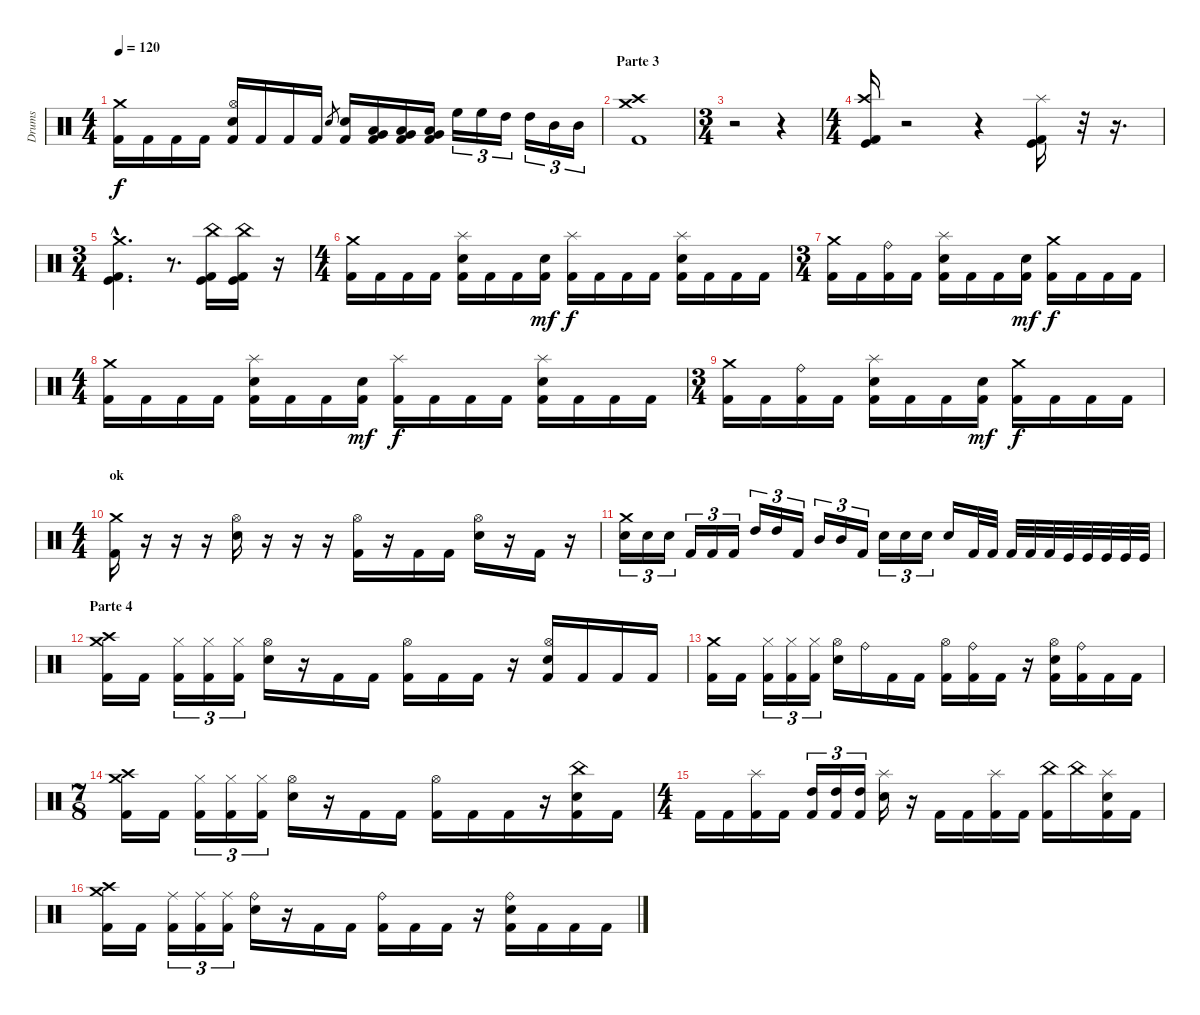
\track ("Drums" "Drums") {instrument percussion}
\staff {score}
\articulation defaults
\ts (4 4)
\tempo 120
\clef neutral
\ks c
("Crash medium (hit)" "Kick (hit) 2").16{dy f} "Kick (hit) 2".16 "Kick (hit) 2".16 "Kick (hit) 2".16 ("Hi-Hat (open)" "Electric Snare (hit)" "Kick (hit) 2").16 "Kick (hit) 2".16 "Kick (hit) 2".16 "Kick (hit) 2".16 "Electric Snare (hit)".8{gr} ("Electric Snare (hit)" "Kick (hit) 2").16 ("Low Floor Tom (hit)" "Very Low Tom (hit)" "Kick (hit) 2").16 ("Low Floor Tom (hit)" "Very Low Tom (hit)" "Kick (hit) 2").16 ("Low Floor Tom (hit)" "Very Low Tom (hit)" "Kick (hit) 2").16 "High Floor Tom (hit)".16{tu (3 2)} "High Floor Tom (hit)".16{tu (3 2)} "High Tom (hit)".16{tu (3 2)} "High Tom (hit)".16{tu (3 2)} "Mid Tom (hit)".16{tu (3 2)} "Mid Tom (hit)".16{tu (3 2)} |
\section ("" "Parte 3")
("Crash high (hit)" "Crash medium (hit)" "Kick (hit) 2").1 |
\ts (3 4)
r.2 r.4 |
\ts (4 4)
("Crash high (hit)" "Kick (hit) 2" "Kick (hit)").16{volume 0} r.2 r.4 ("Splash (hit)" "Kick (hit) 2" "Kick (hit)").16{volume 13} r.32 r.16{d} |
\ts (3 4)
("Crash medium (hit)"{hac} "Kick (hit) 2"{hac} "Kick (hit)"{hac}).4{d volume 0} r.8{d} ("China (hit)" "Kick (hit) 2" "Kick (hit)").16{volume 13} ("China (hit)" "Kick (hit) 2" "Kick (hit)").16 r.16 |
\ts (4 4)
("Crash medium (hit)" "Kick (hit) 2").16 "Kick (hit) 2".16 "Kick (hit) 2".16 "Kick (hit) 2".16 ("Splash (hit)" "Electric Snare (hit)" "Kick (hit) 2").16 "Kick (hit) 2".16 "Kick (hit) 2".16 ("Electric Snare (hit)" "Kick (hit) 2").16{dy mf} ("Splash (hit)" "Kick (hit) 2").16{dy f} "Kick (hit) 2".16 "Kick (hit) 2".16 "Kick (hit) 2".16 ("Splash (hit)" "Electric Snare (hit)" "Kick (hit) 2").16 "Kick (hit) 2".16 "Kick (hit) 2".16 "Kick (hit) 2".16 |
\ts (3 4)
("Crash medium (hit)" "Kick (hit) 2").16 "Kick (hit) 2".16 ("Ride (bell)" "Kick (hit) 2").16 "Kick (hit) 2".16 ("Splash (hit)" "Electric Snare (hit)" "Kick (hit) 2").16 "Kick (hit) 2".16 "Kick (hit) 2".16 ("Electric Snare (hit)" "Kick (hit) 2").16{dy mf} ("Crash medium (hit)" "Kick (hit) 2").16{dy f} "Kick (hit) 2".16 "Kick (hit) 2".16 "Kick (hit) 2".16 |
\ts (4 4)
("Crash medium (hit)" "Kick (hit) 2").16 "Kick (hit) 2".16 "Kick (hit) 2".16 "Kick (hit) 2".16 ("Splash (hit)" "Electric Snare (hit)" "Kick (hit) 2").16 "Kick (hit) 2".16 "Kick (hit) 2".16 ("Electric Snare (hit)" "Kick (hit) 2").16{dy mf} ("Splash (hit)" "Kick (hit) 2").16{dy f} "Kick (hit) 2".16 "Kick (hit) 2".16 "Kick (hit) 2".16 ("Splash (hit)" "Electric Snare (hit)" "Kick (hit) 2").16 "Kick (hit) 2".16 "Kick (hit) 2".16 "Kick (hit) 2".16 |
\ts (3 4)
("Crash medium (hit)" "Kick (hit) 2").16 "Kick (hit) 2".16 ("Ride (bell)" "Kick (hit) 2").16 "Kick (hit) 2".16 ("Splash (hit)" "Electric Snare (hit)" "Kick (hit) 2").16 "Kick (hit) 2".16 "Kick (hit) 2".16 ("Electric Snare (hit)" "Kick (hit) 2").16{dy mf} ("Crash medium (hit)" "Kick (hit) 2").16{dy f} "Kick (hit) 2".16 "Kick (hit) 2".16 "Kick (hit) 2".16 |
\ts (4 4)
\section ("" "ok")
("Crash medium (hit)" "Kick (hit) 2").16 r.16 r.16 r.16 ("Hi-Hat (open)" "Electric Snare (hit)").16 r.16 r.16 r.16 ("Hi-Hat (open)" "Kick (hit) 2").16 r.16 "Kick (hit) 2".16 "Kick (hit) 2".16 ("Hi-Hat (open)" "Electric Snare (hit)").16 r.16 "Kick (hit) 2".16 r.16 |
("Crash medium (hit)" "Electric Snare (hit)").16{tu (3 2)} "Electric Snare (hit)".16{tu (3 2)} "Electric Snare (hit)".16{tu (3 2)} "Kick (hit) 2".16{tu (3 2)} "Kick (hit) 2".16{tu (3 2)} "Kick (hit) 2".16{tu (3 2)} "High Tom (hit)".16{tu (3 2)} "High Tom (hit)".16{tu (3 2)} "Kick (hit) 2".16{tu (3 2)} "Mid Tom (hit)".16{tu (3 2)} "Mid Tom (hit)".16{tu (3 2)} "Kick (hit) 2".16{tu (3 2)} "Electric Snare (hit)".16{tu (3 2)} "Electric Snare (hit)".16{tu (3 2)} "Electric Snare (hit)".16{tu (3 2)} "Electric Snare (hit)".16 "Kick (hit) 2".32 "Kick (hit) 2".32 "Kick (hit) 2".32 "Kick (hit) 2".32 "Kick (hit) 2".32 "Kick (hit)".32 "Kick (hit)".32 "Kick (hit)".32 "Kick (hit)".32 "Kick (hit)".32 |
\section ("" "Parte 4 ")
("Crash medium (hit)" "Crash high (hit)" "Kick (hit) 2").16 "Kick (hit) 2".16 ("Hi-Hat (closed)" "Kick (hit) 2").16{tu (3 2)} ("Hi-Hat (closed)" "Kick (hit) 2").16{tu (3 2)} ("Hi-Hat (closed)" "Kick (hit) 2").16{tu (3 2)} ("Hi-Hat (open)" "Electric Snare (hit)").16 r.16 "Kick (hit) 2".16 "Kick (hit) 2".16 ("Hi-Hat (open)" "Kick (hit) 2").16 "Kick (hit) 2".16 "Kick (hit) 2".16 r.16 ("Hi-Hat (open)" "Electric Snare (hit)" "Kick (hit) 2").16 "Kick (hit) 2".16 "Kick (hit) 2".16 "Kick (hit) 2".16 |
("Crash medium (hit)" "Kick (hit) 2").16 "Kick (hit) 2".16 ("Hi-Hat (closed)" "Kick (hit) 2").16{tu (3 2)} ("Hi-Hat (closed)" "Kick (hit) 2").16{tu (3 2)} ("Hi-Hat (closed)" "Kick (hit) 2").16{tu (3 2)} ("Hi-Hat (open)" "Electric Snare (hit)").16 "Ride (bell)".16 "Kick (hit) 2".16 "Kick (hit) 2".16 ("Hi-Hat (open)" "Kick (hit) 2").16 ("Ride (bell)" "Kick (hit) 2").16 "Kick (hit) 2".16 r.16 ("Hi-Hat (open)" "Electric Snare (hit)" "Kick (hit) 2").16 ("Ride (bell)" "Kick (hit) 2").16 "Kick (hit) 2".16 "Kick (hit) 2".16 |
\ts (7 8)
("Crash high (hit)" "Crash medium (hit)" "Kick (hit) 2").16 "Kick (hit) 2".16 ("Hi-Hat (closed)" "Kick (hit) 2").16{tu (3 2)} ("Hi-Hat (closed)" "Kick (hit) 2").16{tu (3 2)} ("Hi-Hat (closed)" "Kick (hit) 2").16{tu (3 2)} ("Hi-Hat (open)" "Electric Snare (hit)").16 r.16 "Kick (hit) 2".16 "Kick (hit) 2".16 ("Hi-Hat (open)" "Kick (hit) 2").16 "Kick (hit) 2".16 "Kick (hit) 2".16 r.16 ("China (hit)" "Electric Snare (hit)" "Kick (hit) 2").16 "Kick (hit) 2".16 |
\ts (4 4)
"Kick (hit) 2".16 "Kick (hit) 2".16 ("Splash (hit)" "Kick (hit) 2").16 "Kick (hit) 2".16 ("High Tom (hit)" "Kick (hit) 2").16{tu (3 2)} ("High Tom (hit)" "Kick (hit) 2").16{tu (3 2)} ("High Tom (hit)" "Kick (hit) 2").16{tu (3 2)} ("Splash (hit)" "Electric Snare (hit)").16 r.16 "Kick (hit) 2".16 "Kick (hit) 2".16 ("Splash (hit)" "Kick (hit) 2").16 "Kick (hit) 2".16 ("China (hit)" "Kick (hit) 2").16 "China (hit)".16 ("Splash (hit)" "Electric Snare (hit)" "Kick (hit) 2").16 "Kick (hit) 2".16 |
("Crash medium (hit)" "Crash high (hit)" "Kick (hit) 2").16 "Kick (hit) 2".16 ("Ride (middle)" "Kick (hit) 2").16{tu (3 2)} ("Ride (middle)" "Kick (hit) 2").16{tu (3 2)} ("Ride (middle)" "Kick (hit) 2").16{tu (3 2)} ("Ride (bell)" "Electric Snare (hit)").16 r.16 "Kick (hit) 2".16 "Kick (hit) 2".16 ("Ride (bell)" "Kick (hit) 2").16 "Kick (hit) 2".16 "Kick (hit) 2".16 r.16 ("Ride (bell)" "Electric Snare (hit)" "Kick (hit) 2").16 "Kick (hit) 2".16 "Kick (hit) 2".16 "Kick (hit) 2".16
